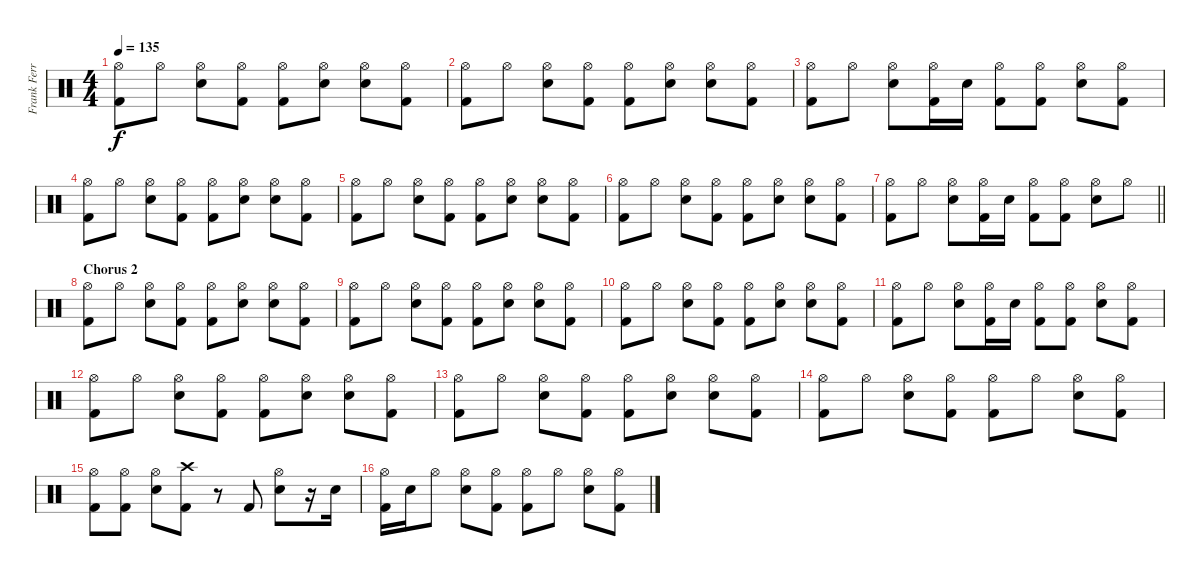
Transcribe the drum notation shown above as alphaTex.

\track ("Frank Ferrer" "Frank Ferr") {instrument percussion}
\staff {score}
\articulation defaults
\ts (4 4)
\tempo 135
\clef neutral
\ks c
("Hi-Hat (open)" "Kick (hit) 2").8{dy f} "Hi-Hat (open)".8 ("Hi-Hat (open)" "Electric Snare (hit)").8 ("Hi-Hat (open)" "Kick (hit) 2").8 ("Hi-Hat (open)" "Kick (hit) 2").8 ("Hi-Hat (open)" "Electric Snare (hit)").8 ("Hi-Hat (open)" "Electric Snare (hit)").8 ("Hi-Hat (open)" "Kick (hit) 2").8 |
("Hi-Hat (open)" "Kick (hit) 2").8 "Hi-Hat (open)".8 ("Hi-Hat (open)" "Electric Snare (hit)").8 ("Hi-Hat (open)" "Kick (hit) 2").8 ("Hi-Hat (open)" "Kick (hit) 2").8 ("Hi-Hat (open)" "Electric Snare (hit)").8 ("Hi-Hat (open)" "Electric Snare (hit)").8 ("Hi-Hat (open)" "Kick (hit) 2").8 |
("Hi-Hat (open)" "Kick (hit) 2").8 "Hi-Hat (open)".8 ("Hi-Hat (open)" "Electric Snare (hit)").8 ("Hi-Hat (open)" "Kick (hit) 2").16 "Electric Snare (hit)".16 ("Hi-Hat (open)" "Kick (hit) 2").8 ("Hi-Hat (open)" "Kick (hit) 2").8 ("Hi-Hat (open)" "Electric Snare (hit)").8 ("Hi-Hat (open)" "Kick (hit) 2").8 |
("Hi-Hat (open)" "Kick (hit) 2").8 "Hi-Hat (open)".8 ("Hi-Hat (open)" "Electric Snare (hit)").8 ("Hi-Hat (open)" "Kick (hit) 2").8 ("Hi-Hat (open)" "Kick (hit) 2").8 ("Hi-Hat (open)" "Electric Snare (hit)").8 ("Hi-Hat (open)" "Electric Snare (hit)").8 ("Hi-Hat (open)" "Kick (hit) 2").8 |
("Hi-Hat (open)" "Kick (hit) 2").8 "Hi-Hat (open)".8 ("Hi-Hat (open)" "Electric Snare (hit)").8 ("Hi-Hat (open)" "Kick (hit) 2").8 ("Hi-Hat (open)" "Kick (hit) 2").8 ("Hi-Hat (open)" "Electric Snare (hit)").8 ("Hi-Hat (open)" "Electric Snare (hit)").8 ("Hi-Hat (open)" "Kick (hit) 2").8 |
("Hi-Hat (open)" "Kick (hit) 2").8 "Hi-Hat (open)".8 ("Hi-Hat (open)" "Electric Snare (hit)").8 ("Hi-Hat (open)" "Kick (hit) 2").8 ("Hi-Hat (open)" "Kick (hit) 2").8 ("Hi-Hat (open)" "Electric Snare (hit)").8 ("Hi-Hat (open)" "Electric Snare (hit)").8 ("Hi-Hat (open)" "Kick (hit) 2").8 |
\barLineRight lightlight
("Hi-Hat (open)" "Kick (hit) 2").8 "Hi-Hat (open)".8 ("Hi-Hat (open)" "Electric Snare (hit)").8 ("Hi-Hat (open)" "Kick (hit) 2").16 "Electric Snare (hit)".16 ("Hi-Hat (open)" "Kick (hit) 2").8 ("Hi-Hat (open)" "Kick (hit) 2").8 ("Hi-Hat (open)" "Electric Snare (hit)").8 "Hi-Hat (open)".8 |
\section ("" "Chorus 2")
("Hi-Hat (open)" "Kick (hit) 2").8 "Hi-Hat (open)".8 ("Hi-Hat (open)" "Electric Snare (hit)").8 ("Hi-Hat (open)" "Kick (hit) 2").8 ("Hi-Hat (open)" "Kick (hit) 2").8 ("Hi-Hat (open)" "Electric Snare (hit)").8 ("Hi-Hat (open)" "Electric Snare (hit)").8 ("Hi-Hat (open)" "Kick (hit) 2").8 |
("Hi-Hat (open)" "Kick (hit) 2").8 "Hi-Hat (open)".8 ("Hi-Hat (open)" "Electric Snare (hit)").8 ("Hi-Hat (open)" "Kick (hit) 2").8 ("Hi-Hat (open)" "Kick (hit) 2").8 ("Hi-Hat (open)" "Electric Snare (hit)").8 ("Hi-Hat (open)" "Electric Snare (hit)").8 ("Hi-Hat (open)" "Kick (hit) 2").8 |
("Hi-Hat (open)" "Kick (hit) 2").8 "Hi-Hat (open)".8 ("Hi-Hat (open)" "Electric Snare (hit)").8 ("Hi-Hat (open)" "Kick (hit) 2").8 ("Hi-Hat (open)" "Kick (hit) 2").8 ("Hi-Hat (open)" "Electric Snare (hit)").8 ("Hi-Hat (open)" "Electric Snare (hit)").8 ("Hi-Hat (open)" "Kick (hit) 2").8 |
("Hi-Hat (open)" "Kick (hit) 2").8 "Hi-Hat (open)".8 ("Hi-Hat (open)" "Electric Snare (hit)").8 ("Hi-Hat (open)" "Kick (hit) 2").16 "Electric Snare (hit)".16 ("Hi-Hat (open)" "Kick (hit) 2").8 ("Hi-Hat (open)" "Kick (hit) 2").8 ("Hi-Hat (open)" "Electric Snare (hit)").8 ("Hi-Hat (open)" "Kick (hit) 2").8 |
("Hi-Hat (open)" "Kick (hit) 2").8 "Hi-Hat (open)".8 ("Hi-Hat (open)" "Electric Snare (hit)").8 ("Hi-Hat (open)" "Kick (hit) 2").8 ("Hi-Hat (open)" "Kick (hit) 2").8 ("Hi-Hat (open)" "Electric Snare (hit)").8 ("Hi-Hat (open)" "Electric Snare (hit)").8 ("Hi-Hat (open)" "Kick (hit) 2").8 |
("Hi-Hat (open)" "Kick (hit) 2").8 "Hi-Hat (open)".8 ("Hi-Hat (open)" "Electric Snare (hit)").8 ("Hi-Hat (open)" "Kick (hit) 2").8 ("Hi-Hat (open)" "Kick (hit) 2").8 ("Hi-Hat (open)" "Electric Snare (hit)").8 ("Hi-Hat (open)" "Electric Snare (hit)").8 ("Hi-Hat (open)" "Kick (hit) 2").8 |
("Hi-Hat (open)" "Kick (hit) 2").8 "Hi-Hat (open)".8 ("Hi-Hat (open)" "Electric Snare (hit)").8 ("Hi-Hat (open)" "Kick (hit) 2").8 ("Hi-Hat (open)" "Kick (hit) 2").8 "Hi-Hat (open)".8 ("Hi-Hat (open)" "Electric Snare (hit)").8 ("Hi-Hat (open)" "Kick (hit) 2").8 |
("Hi-Hat (open)" "Kick (hit) 2").8 ("Hi-Hat (open)" "Kick (hit) 2").8 ("Hi-Hat (open)" "Electric Snare (hit)").8 ("Crash high (hit)" "Kick (hit) 2").8 r.8 "Kick (hit) 2".8 ("Hi-Hat (open)" "Electric Snare (hit)").8 r.16 "Electric Snare (hit)".16 |
("Hi-Hat (open)" "Kick (hit) 2").16 "Electric Snare (hit)".16 "Hi-Hat (open)".8 ("Hi-Hat (open)" "Electric Snare (hit)").8 ("Hi-Hat (open)" "Kick (hit) 2").8 ("Hi-Hat (open)" "Kick (hit) 2").8 "Hi-Hat (open)".8 ("Hi-Hat (open)" "Electric Snare (hit)").8 ("Hi-Hat (open)" "Kick (hit) 2").8
